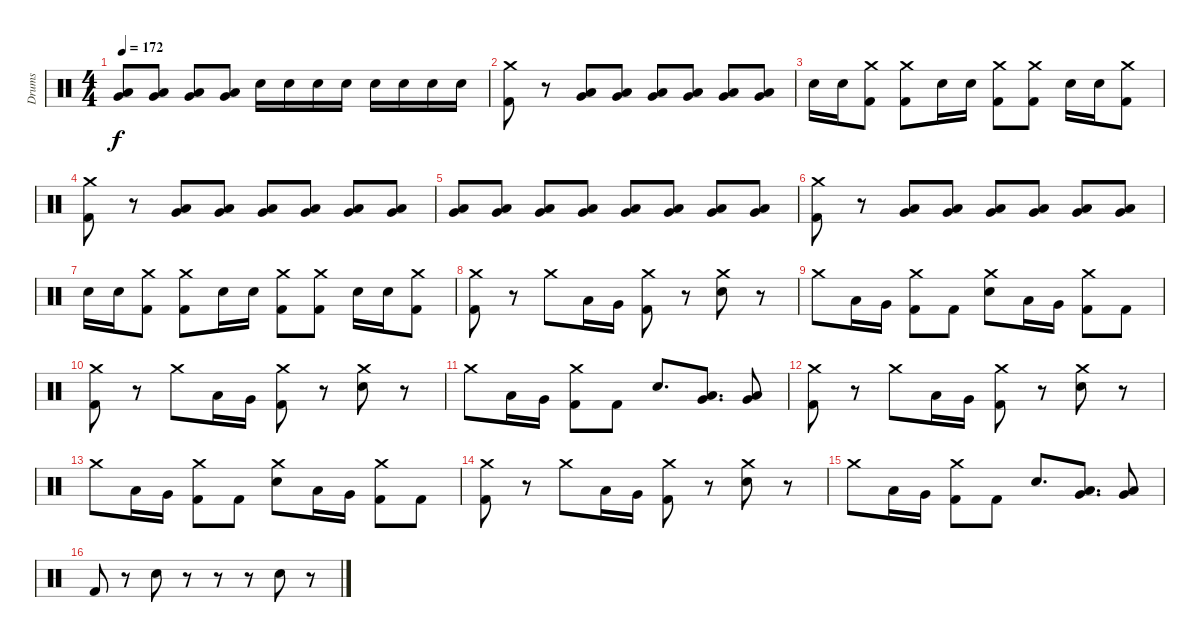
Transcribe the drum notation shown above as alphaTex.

\track ("Drums" "Drums") {instrument percussion}
\staff {score}
\articulation defaults
\ts (4 4)
\tempo 172
\clef neutral
\ks c
("Very Low Tom (hit)" "Low Floor Tom (hit)").8{dy f} ("Very Low Tom (hit)" "Low Floor Tom (hit)").8 ("Very Low Tom (hit)" "Low Floor Tom (hit)").8 ("Very Low Tom (hit)" "Low Floor Tom (hit)").8 "Electric Snare (hit)".16 "Electric Snare (hit)".16 "Electric Snare (hit)".16 "Electric Snare (hit)".16 "Electric Snare (hit)".16 "Electric Snare (hit)".16 "Electric Snare (hit)".16 "Electric Snare (hit)".16 |
("Crash medium (hit)" "Kick (hit) 2").8 r.8 ("Very Low Tom (hit)" "Low Floor Tom (hit)").8 ("Very Low Tom (hit)" "Low Floor Tom (hit)").8 ("Very Low Tom (hit)" "Low Floor Tom (hit)").8 ("Very Low Tom (hit)" "Low Floor Tom (hit)").8 ("Very Low Tom (hit)" "Low Floor Tom (hit)").8 ("Very Low Tom (hit)" "Low Floor Tom (hit)").8 |
"Electric Snare (hit)".16 "Electric Snare (hit)".16 ("Crash medium (hit)" "Kick (hit) 2").8 ("Crash medium (hit)" "Kick (hit) 2").8 "Electric Snare (hit)".16 "Electric Snare (hit)".16 ("Crash medium (hit)" "Kick (hit) 2").8 ("Crash medium (hit)" "Kick (hit) 2").8 "Electric Snare (hit)".16 "Electric Snare (hit)".16 ("Crash medium (hit)" "Kick (hit) 2").8 |
("Crash medium (hit)" "Kick (hit) 2").8 r.8 ("Very Low Tom (hit)" "Low Floor Tom (hit)").8 ("Very Low Tom (hit)" "Low Floor Tom (hit)").8 ("Very Low Tom (hit)" "Low Floor Tom (hit)").8 ("Very Low Tom (hit)" "Low Floor Tom (hit)").8 ("Very Low Tom (hit)" "Low Floor Tom (hit)").8 ("Very Low Tom (hit)" "Low Floor Tom (hit)").8 |
("Very Low Tom (hit)" "Low Floor Tom (hit)").8 ("Very Low Tom (hit)" "Low Floor Tom (hit)").8 ("Very Low Tom (hit)" "Low Floor Tom (hit)").8 ("Very Low Tom (hit)" "Low Floor Tom (hit)").8 ("Very Low Tom (hit)" "Low Floor Tom (hit)").8 ("Very Low Tom (hit)" "Low Floor Tom (hit)").8 ("Very Low Tom (hit)" "Low Floor Tom (hit)").8 ("Very Low Tom (hit)" "Low Floor Tom (hit)").8 |
("Crash medium (hit)" "Kick (hit) 2").8 r.8 ("Very Low Tom (hit)" "Low Floor Tom (hit)").8 ("Very Low Tom (hit)" "Low Floor Tom (hit)").8 ("Very Low Tom (hit)" "Low Floor Tom (hit)").8 ("Very Low Tom (hit)" "Low Floor Tom (hit)").8 ("Very Low Tom (hit)" "Low Floor Tom (hit)").8 ("Very Low Tom (hit)" "Low Floor Tom (hit)").8 |
"Electric Snare (hit)".16 "Electric Snare (hit)".16 ("Crash medium (hit)" "Kick (hit) 2").8 ("Crash medium (hit)" "Kick (hit) 2").8 "Electric Snare (hit)".16 "Electric Snare (hit)".16 ("Crash medium (hit)" "Kick (hit) 2").8 ("Crash medium (hit)" "Kick (hit) 2").8 "Electric Snare (hit)".16 "Electric Snare (hit)".16 ("Crash medium (hit)" "Kick (hit) 2").8 |
("Crash medium (hit)" "Kick (hit) 2").8 r.8 "Crash medium (hit)".8 "Low Tom (hit)".16 "Very Low Tom (hit)".16 ("Crash medium (hit)" "Kick (hit) 2").8 r.8 ("Crash medium (hit)" "Electric Snare (hit)").8 r.8 |
"Crash medium (hit)".8 "Low Tom (hit)".16 "Very Low Tom (hit)".16 ("Crash medium (hit)" "Kick (hit) 2").8 "Kick (hit) 2".8 ("Crash medium (hit)" "Electric Snare (hit)").8 "Low Tom (hit)".16 "Very Low Tom (hit)".16 ("Crash medium (hit)" "Kick (hit) 2").8 "Kick (hit) 2".8 |
("Crash medium (hit)" "Kick (hit) 2").8 r.8 "Crash medium (hit)".8 "Low Tom (hit)".16 "Very Low Tom (hit)".16 ("Crash medium (hit)" "Kick (hit) 2").8 r.8 ("Crash medium (hit)" "Electric Snare (hit)").8 r.8 |
"Crash medium (hit)".8 "Low Tom (hit)".16 "Very Low Tom (hit)".16 ("Crash medium (hit)" "Kick (hit) 2").8 "Kick (hit) 2".8 "Electric Snare (hit)".8{d} ("Very Low Tom (hit)" "Low Tom (hit)").8{d} ("Low Floor Tom (hit)" "Very Low Tom (hit)").8 |
("Crash medium (hit)" "Kick (hit) 2").8 r.8 "Crash medium (hit)".8 "Low Tom (hit)".16 "Very Low Tom (hit)".16 ("Crash medium (hit)" "Kick (hit) 2").8 r.8 ("Crash medium (hit)" "Electric Snare (hit)").8 r.8 |
"Crash medium (hit)".8 "Low Tom (hit)".16 "Very Low Tom (hit)".16 ("Crash medium (hit)" "Kick (hit) 2").8 "Kick (hit) 2".8 ("Crash medium (hit)" "Electric Snare (hit)").8 "Low Tom (hit)".16 "Very Low Tom (hit)".16 ("Crash medium (hit)" "Kick (hit) 2").8 "Kick (hit) 2".8 |
("Crash medium (hit)" "Kick (hit) 2").8 r.8 "Crash medium (hit)".8 "Low Tom (hit)".16 "Very Low Tom (hit)".16 ("Crash medium (hit)" "Kick (hit) 2").8 r.8 ("Crash medium (hit)" "Electric Snare (hit)").8 r.8 |
"Crash medium (hit)".8 "Low Tom (hit)".16 "Very Low Tom (hit)".16 ("Crash medium (hit)" "Kick (hit) 2").8 "Kick (hit) 2".8 "Electric Snare (hit)".8{d} ("Very Low Tom (hit)" "Low Tom (hit)").8{d} ("Low Floor Tom (hit)" "Very Low Tom (hit)").8 |
"Kick (hit) 2".8 r.8 "Electric Snare (hit)".8 r.8 r.8 r.8 "Electric Snare (hit)".8 r.8
